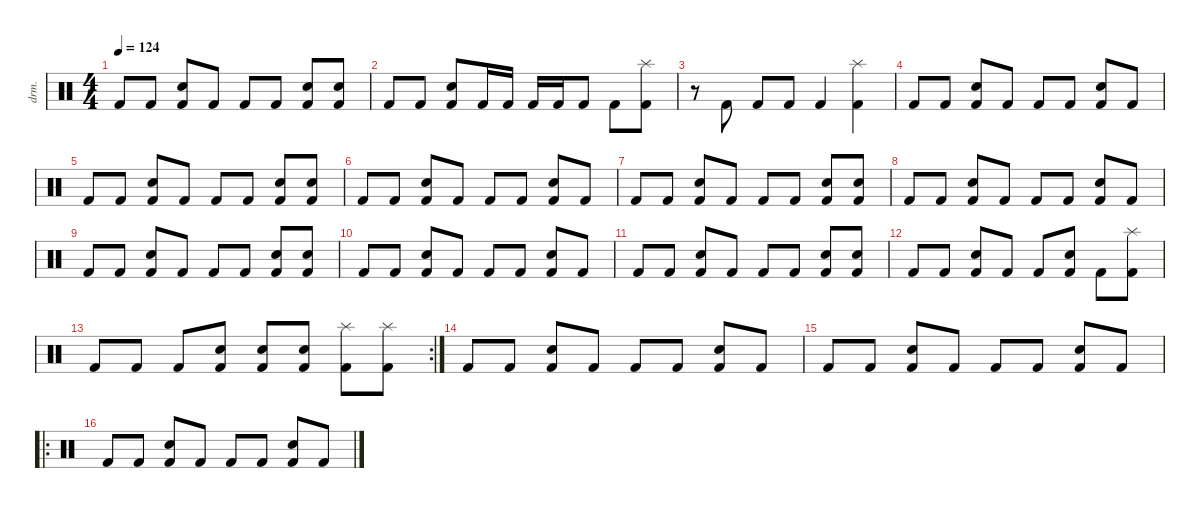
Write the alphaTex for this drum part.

\defaultSystemsLayout 4
\hideDynamics
\bracketExtendMode nobrackets
\otherSystemsTrackNameOrientation horizontal
\track ("Drums" "drm.") {instrument percussion}
\staff {score}
\articulation defaults
\ts (4 4)
\tempo 124
\clef neutral
\ks c "Kick (hit) 2".8{dy f beam Up} "Kick (hit) 2".8{beam Up}
("Kick (hit) 2" "Snare (hit) 2").8{beam Up} "Kick (hit) 2".8{beam Up} "Kick (hit) 2".8{beam Up} "Kick (hit) 2".8{beam Up} ("Kick (hit) 2" "Snare (hit) 2").8{beam Up} ("Kick (hit) 2" "Snare (hit) 2").8{beam Up} |
"Kick (hit) 2".8{beam Up} "Kick (hit) 2".8{beam Up} ("Kick (hit) 2" "Snare (hit) 2").8{beam Up} "Kick (hit) 2".16{beam Up} "Kick (hit) 2".16{beam Up} "Kick (hit) 2".16{beam Up} "Kick (hit) 2".16{beam Up} "Kick (hit) 2".8{beam Up} "Kick (hit) 2".8{beam Down} ("Kick (hit) 2" "Splash (hit)").8{beam Down} |
r.8{beam Down} "Kick (hit) 2".8{beam Up} "Kick (hit) 2".8{beam Up} "Kick (hit) 2".8{beam Up} "Kick (hit) 2".4{beam Up} ("Kick (hit) 2" "Splash (hit)").4{beam Down} |
"Kick (hit) 2".8{beam Up} "Kick (hit) 2".8{beam Up} ("Kick (hit) 2" "Snare (hit) 2").8{beam Up} "Kick (hit) 2".8{beam Up} "Kick (hit) 2".8{beam Up} "Kick (hit) 2".8{beam Up} ("Kick (hit) 2" "Snare (hit) 2").8{beam Up} "Kick (hit) 2".8{beam Up} |
"Kick (hit) 2".8{beam Up} "Kick (hit) 2".8{beam Up} ("Kick (hit) 2" "Snare (hit) 2").8{beam Up} "Kick (hit) 2".8{beam Up} "Kick (hit) 2".8{beam Up} "Kick (hit) 2".8{beam Up} ("Kick (hit) 2" "Snare (hit) 2").8{beam Up} ("Kick (hit) 2" "Snare (hit) 2").8{beam Up} |
"Kick (hit) 2".8{beam Up} "Kick (hit) 2".8{beam Up} ("Kick (hit) 2" "Snare (hit) 2").8{beam Up} "Kick (hit) 2".8{beam Up} "Kick (hit) 2".8{beam Up} "Kick (hit) 2".8{beam Up} ("Kick (hit) 2" "Snare (hit) 2").8{beam Up} "Kick (hit) 2".8{beam Up} |
"Kick (hit) 2".8{beam Up} "Kick (hit) 2".8{beam Up} ("Kick (hit) 2" "Snare (hit) 2").8{beam Up} "Kick (hit) 2".8{beam Up} "Kick (hit) 2".8{beam Up} "Kick (hit) 2".8{beam Up} ("Kick (hit) 2" "Snare (hit) 2").8{beam Up} ("Kick (hit) 2" "Snare (hit) 2").8{beam Up} |
"Kick (hit) 2".8{beam Up} "Kick (hit) 2".8{beam Up} ("Kick (hit) 2" "Snare (hit) 2").8{beam Up} "Kick (hit) 2".8{beam Up} "Kick (hit) 2".8{beam Up} "Kick (hit) 2".8{beam Up} ("Kick (hit) 2" "Snare (hit) 2").8{beam Up} "Kick (hit) 2".8{beam Up} |
"Kick (hit) 2".8{beam Up} "Kick (hit) 2".8{beam Up} ("Kick (hit) 2" "Snare (hit) 2").8{beam Up} "Kick (hit) 2".8{beam Up} "Kick (hit) 2".8{beam Up} "Kick (hit) 2".8{beam Up} ("Kick (hit) 2" "Snare (hit) 2").8{beam Up} ("Kick (hit) 2" "Snare (hit) 2").8{beam Up} |
"Kick (hit) 2".8{beam Up} "Kick (hit) 2".8{beam Up} ("Kick (hit) 2" "Snare (hit) 2").8{beam Up} "Kick (hit) 2".8{beam Up} "Kick (hit) 2".8{beam Up} "Kick (hit) 2".8{beam Up} ("Kick (hit) 2" "Snare (hit) 2").8{beam Up} "Kick (hit) 2".8{beam Up} |
"Kick (hit) 2".8{beam Up} "Kick (hit) 2".8{beam Up} ("Kick (hit) 2" "Snare (hit) 2").8{beam Up} "Kick (hit) 2".8{beam Up} "Kick (hit) 2".8{beam Up} "Kick (hit) 2".8{beam Up} ("Kick (hit) 2" "Snare (hit) 2").8{beam Up} ("Kick (hit) 2" "Snare (hit) 2").8{beam Up} |
"Kick (hit) 2".8{beam Up} "Kick (hit) 2".8{beam Up} ("Kick (hit) 2" "Snare (hit) 2").8{beam Up} "Kick (hit) 2".8{beam Up} "Kick (hit) 2".8{beam Up} ("Kick (hit) 2" "Snare (hit) 2").8{beam Up} "Kick (hit) 2".8{beam Down} ("Kick (hit) 2" "Splash (hit)").8{beam Down} |
\rc 2 "Kick (hit) 2".8{beam Up} "Kick (hit) 2".8{beam Up} "Kick (hit) 2".8{beam Up}
("Kick (hit) 2" "Snare (hit) 2").8{beam Up} ("Kick (hit) 2" "Snare (hit) 2").8{beam Up} ("Kick (hit) 2" "Snare (hit) 2").8{beam Up} ("Kick (hit) 2" "Splash (hit)").8{beam Down} ("Kick (hit) 2" "Splash (hit)").8{beam Down} |
"Kick (hit) 2".8{beam Up} "Kick (hit) 2".8{beam Up} ("Kick (hit) 2" "Snare (hit) 2").8{beam Up} "Kick (hit) 2".8{beam Up} "Kick (hit) 2".8{beam Up} "Kick (hit) 2".8{beam Up} ("Kick (hit) 2" "Snare (hit) 2").8{beam Up} "Kick (hit) 2".8{beam Up} |
"Kick (hit) 2".8{beam Up} "Kick (hit) 2".8{beam Up} ("Kick (hit) 2" "Snare (hit) 2").8{beam Up} "Kick (hit) 2".8{beam Up} "Kick (hit) 2".8{beam Up} "Kick (hit) 2".8{beam Up} ("Kick (hit) 2" "Snare (hit) 2").8{beam Up} "Kick (hit) 2".8{beam Up} |
\ro "Kick (hit) 2".8{beam Up} "Kick (hit) 2".8{beam Up}
("Kick (hit) 2" "Snare (hit) 2").8{beam Up} "Kick (hit) 2".8{beam Up} "Kick (hit) 2".8{beam Up} "Kick (hit) 2".8{beam Up} ("Kick (hit) 2" "Snare (hit) 2").8{beam Up} "Kick (hit) 2".8{beam Up}
